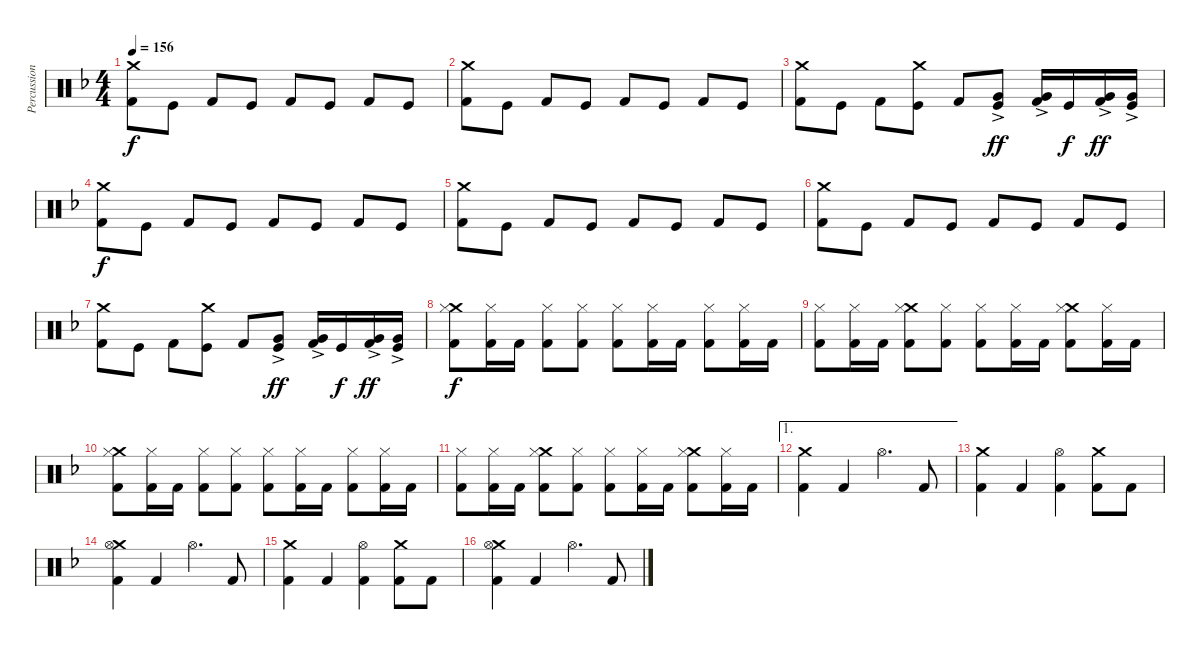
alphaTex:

\track ("Percussion" "Percussion") {instrument percussion}
\staff {score}
\articulation defaults
\ts (4 4)
\tempo 156
\clef neutral
\ks f
("Crash medium (hit)" "Kick (hit) 2").8{dy f} "Kick (hit)".8 "Kick (hit) 2".8 "Kick (hit)".8 "Kick (hit) 2".8 "Kick (hit)".8 "Kick (hit) 2".8 "Kick (hit)".8 |
("Crash medium (hit)" "Kick (hit) 2").8 "Kick (hit)".8 "Kick (hit) 2".8 "Kick (hit)".8 "Kick (hit) 2".8 "Kick (hit)".8 "Kick (hit) 2".8 "Kick (hit)".8 |
("Crash medium (hit)" "Kick (hit) 2").8 "Kick (hit)".8 "Kick (hit) 2".8 ("Crash medium (hit)" "Kick (hit)").8 "Kick (hit) 2".8 ("Kick (hit)" "Very Low Tom (hit)"{ac}).8{dy ff} ("Kick (hit) 2" "Very Low Tom (hit)"{ac}).16 "Kick (hit)".16{dy f} ("Kick (hit) 2" "Very Low Tom (hit)"{ac}).16{dy ff} ("Kick (hit)" "Very Low Tom (hit)"{ac}).16 |
("Crash medium (hit)" "Kick (hit) 2").8{dy f} "Kick (hit)".8 "Kick (hit) 2".8 "Kick (hit)".8 "Kick (hit) 2".8 "Kick (hit)".8 "Kick (hit) 2".8 "Kick (hit)".8 |
("Crash medium (hit)" "Kick (hit) 2").8 "Kick (hit)".8 "Kick (hit) 2".8 "Kick (hit)".8 "Kick (hit) 2".8 "Kick (hit)".8 "Kick (hit) 2".8 "Kick (hit)".8 |
("Crash medium (hit)" "Kick (hit) 2").8 "Kick (hit)".8 "Kick (hit) 2".8 "Kick (hit)".8 "Kick (hit) 2".8 "Kick (hit)".8 "Kick (hit) 2".8 "Kick (hit)".8 |
("Crash medium (hit)" "Kick (hit) 2").8 "Kick (hit)".8 "Kick (hit) 2".8 ("Crash medium (hit)" "Kick (hit)").8 "Kick (hit) 2".8 ("Kick (hit)" "Very Low Tom (hit)"{ac}).8{dy ff} ("Kick (hit) 2" "Very Low Tom (hit)"{ac}).16 "Kick (hit)".16{dy f} ("Kick (hit) 2" "Very Low Tom (hit)"{ac}).16{dy ff} ("Kick (hit)" "Very Low Tom (hit)"{ac}).16 |
("Crash medium (hit)" "Kick (hit) 2" "Hi-Hat (closed)").8{dy f} ("Kick (hit) 2" "Hi-Hat (closed)").16 "Kick (hit) 2".16 ("Kick (hit) 2" "Hi-Hat (closed)").8 ("Kick (hit) 2" "Hi-Hat (closed)").8 ("Kick (hit) 2" "Hi-Hat (closed)").8 ("Kick (hit) 2" "Hi-Hat (closed)").16 "Kick (hit) 2".16 ("Kick (hit) 2" "Hi-Hat (closed)").8 ("Kick (hit) 2" "Hi-Hat (closed)").16 "Kick (hit) 2".16 |
("Kick (hit) 2" "Hi-Hat (closed)").8 ("Kick (hit) 2" "Hi-Hat (closed)").16 "Kick (hit) 2".16 ("Crash medium (hit)" "Kick (hit) 2" "Hi-Hat (closed)").8 ("Kick (hit) 2" "Hi-Hat (closed)").8 ("Kick (hit) 2" "Hi-Hat (closed)").8 ("Kick (hit) 2" "Hi-Hat (closed)").16 "Kick (hit) 2".16 ("Crash medium (hit)" "Kick (hit) 2" "Hi-Hat (closed)").8 ("Kick (hit) 2" "Hi-Hat (closed)").16 "Kick (hit) 2".16 |
("Crash medium (hit)" "Kick (hit) 2" "Hi-Hat (closed)").8 ("Kick (hit) 2" "Hi-Hat (closed)").16 "Kick (hit) 2".16 ("Kick (hit) 2" "Hi-Hat (closed)").8 ("Kick (hit) 2" "Hi-Hat (closed)").8 ("Kick (hit) 2" "Hi-Hat (closed)").8 ("Kick (hit) 2" "Hi-Hat (closed)").16 "Kick (hit) 2".16 ("Kick (hit) 2" "Hi-Hat (closed)").8 ("Kick (hit) 2" "Hi-Hat (closed)").16 "Kick (hit) 2".16 |
("Kick (hit) 2" "Hi-Hat (closed)").8 ("Kick (hit) 2" "Hi-Hat (closed)").16 "Kick (hit) 2".16 ("Crash medium (hit)" "Kick (hit) 2" "Hi-Hat (closed)").8 ("Kick (hit) 2" "Hi-Hat (closed)").8 ("Kick (hit) 2" "Hi-Hat (closed)").8 ("Kick (hit) 2" "Hi-Hat (closed)").16 "Kick (hit) 2".16 ("Crash medium (hit)" "Kick (hit) 2" "Hi-Hat (closed)").8 ("Kick (hit) 2" "Hi-Hat (closed)").16 "Kick (hit) 2".16 |
\ae 1
("Crash medium (hit)" "Kick (hit) 2").4 "Kick (hit) 2".4 "Hi-Hat (open)".4{d} "Kick (hit) 2".8 |
("Crash medium (hit)" "Kick (hit) 2").4 "Kick (hit) 2".4 ("Kick (hit) 2" "Hi-Hat (open)").4 ("Crash medium (hit)" "Kick (hit) 2").8 "Kick (hit) 2".8 |
("Crash medium (hit)" "Kick (hit) 2" "Hi-Hat (open)").4 "Kick (hit) 2".4 "Hi-Hat (open)".4{d} "Kick (hit) 2".8 |
("Crash medium (hit)" "Kick (hit) 2").4 "Kick (hit) 2".4 ("Kick (hit) 2" "Hi-Hat (open)").4 ("Crash medium (hit)" "Kick (hit) 2").8 "Kick (hit) 2".8 |
("Crash medium (hit)" "Kick (hit) 2" "Hi-Hat (open)").4 "Kick (hit) 2".4 "Hi-Hat (open)".4{d} "Kick (hit) 2".8
